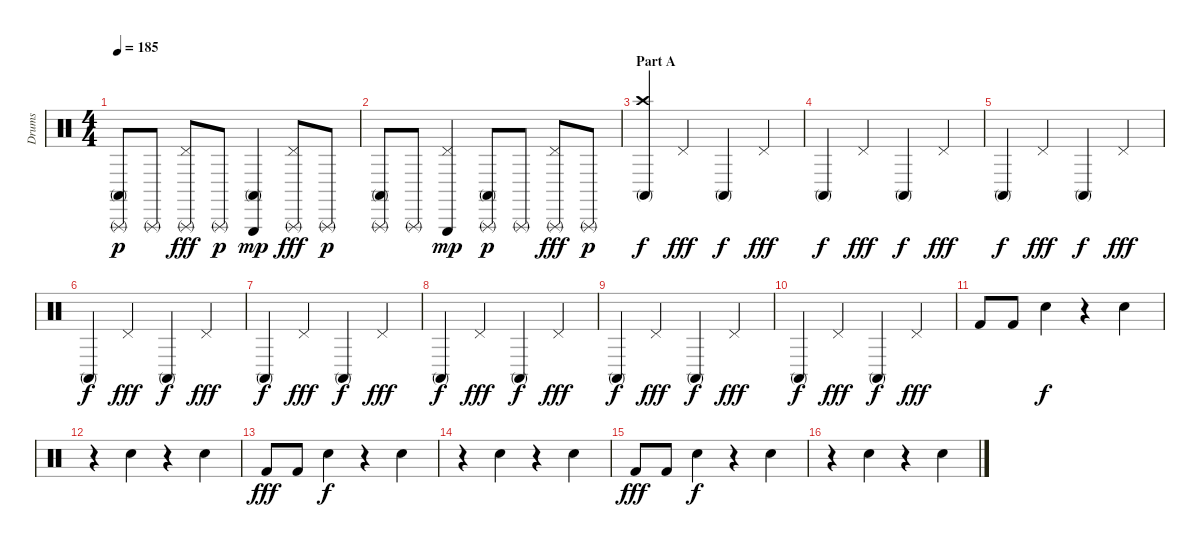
\track ("Drums" "Drums") {instrument percussion}
\staff {score}
\articulation defaults
\ts (4 4)
\tempo 185
\clef neutral
\ks c
("Triangle (rnute)" "Conga high (mute)").8{dy p} "Triangle (rnute)".8 ("Triangle (rnute)" "Pedal Hi-Hat (hit)").8{dy fff} "Triangle (rnute)".8{dy p} ("Conga high (mute)" "Triangle (hit)").4{dy mp} ("Triangle (rnute)" "Pedal Hi-Hat (hit)").8{dy fff} "Triangle (rnute)".8{dy p} |
("Triangle (rnute)" "Conga high (mute)").8 "Triangle (rnute)".8 ("Pedal Hi-Hat (hit)" "Triangle (hit)").4{dy mp} ("Conga high (mute)" "Triangle (rnute)").8{dy p} "Triangle (rnute)".8 ("Triangle (rnute)" "Pedal Hi-Hat (hit)").8{dy fff} "Triangle (rnute)".8{dy p} |
\section ("" "Part A")
("Conga high (mute)" "Crash high (hit)").4{dy f} "Pedal Hi-Hat (hit)".4{dy fff} "Conga high (mute)".4{dy f} "Pedal Hi-Hat (hit)".4{dy fff} |
"Conga high (mute)".4{dy f} "Pedal Hi-Hat (hit)".4{dy fff} "Conga high (mute)".4{dy f} "Pedal Hi-Hat (hit)".4{dy fff} |
"Conga high (mute)".4{dy f} "Pedal Hi-Hat (hit)".4{dy fff} "Conga high (mute)".4{dy f} "Pedal Hi-Hat (hit)".4{dy fff} |
"Conga high (mute)".4{dy f} "Pedal Hi-Hat (hit)".4{dy fff} "Conga high (mute)".4{dy f} "Pedal Hi-Hat (hit)".4{dy fff} |
"Conga high (mute)".4{dy f} "Pedal Hi-Hat (hit)".4{dy fff} "Conga high (mute)".4{dy f} "Pedal Hi-Hat (hit)".4{dy fff} |
"Conga high (mute)".4{dy f} "Pedal Hi-Hat (hit)".4{dy fff} "Conga high (mute)".4{dy f} "Pedal Hi-Hat (hit)".4{dy fff} |
"Conga high (mute)".4{dy f} "Pedal Hi-Hat (hit)".4{dy fff} "Conga high (mute)".4{dy f} "Pedal Hi-Hat (hit)".4{dy fff} |
"Conga high (mute)".4{dy f} "Pedal Hi-Hat (hit)".4{dy fff} "Conga high (mute)".4{dy f} "Pedal Hi-Hat (hit)".4{dy fff} |
"Kick (hit) 2".8 "Kick (hit) 2".8 "Electric Snare (hit)".4{dy f} r.4 "Electric Snare (hit)".4 |
r.4 "Electric Snare (hit)".4 r.4 "Electric Snare (hit)".4 |
"Kick (hit) 2".8{dy fff} "Kick (hit) 2".8 "Electric Snare (hit)".4{dy f} r.4 "Electric Snare (hit)".4 |
r.4 "Electric Snare (hit)".4 r.4 "Electric Snare (hit)".4 |
"Kick (hit) 2".8{dy fff} "Kick (hit) 2".8 "Electric Snare (hit)".4{dy f} r.4 "Electric Snare (hit)".4 |
r.4 "Electric Snare (hit)".4 r.4 "Electric Snare (hit)".4
